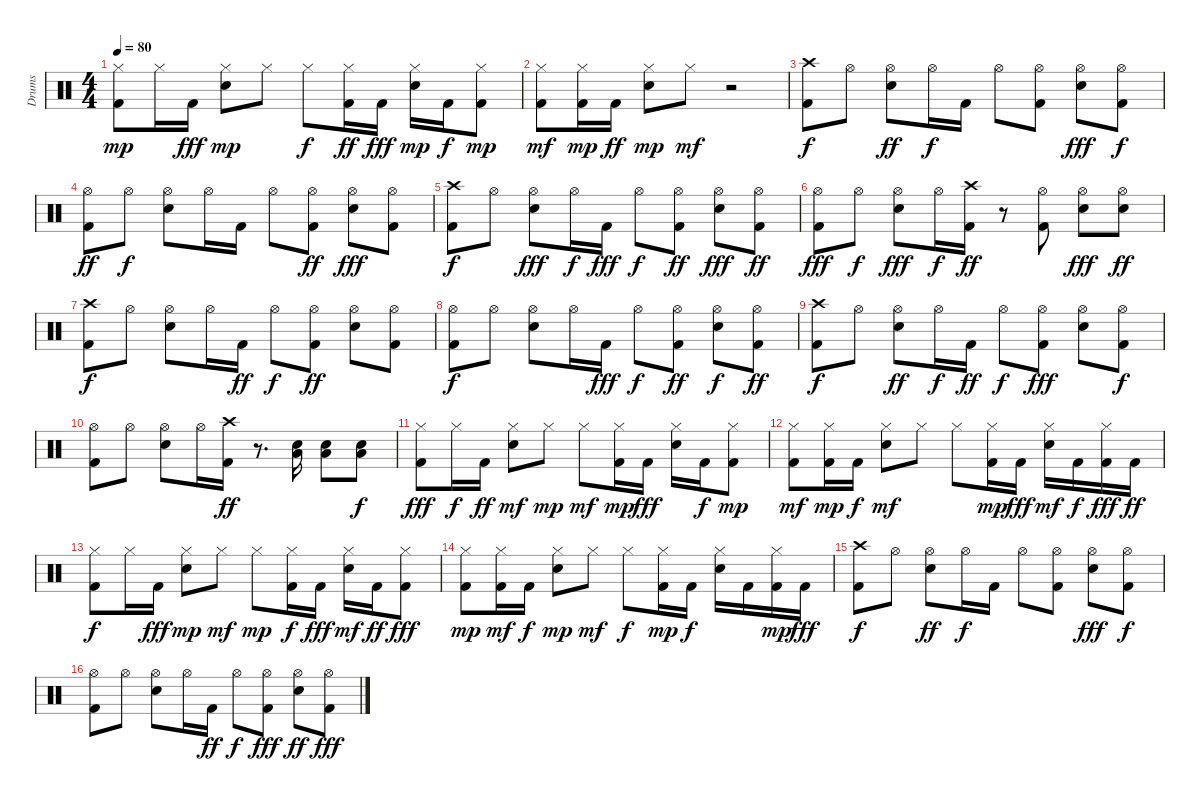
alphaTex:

\track ("Drums" "Drums") {instrument percussion}
\staff {score}
\articulation defaults
\ts (4 4)
\tempo 80
\clef neutral
\ks c
("Kick (hit) 2" "Hi-Hat (closed)").8{dy mp} "Hi-Hat (closed)".16 "Kick (hit) 2".16{dy fff} ("Snare (hit) 2" "Hi-Hat (closed)").8{dy mp} "Hi-Hat (closed)".8 "Hi-Hat (closed)".8{dy f} ("Kick (hit) 2" "Hi-Hat (closed)").16{dy ff} "Kick (hit) 2".16{dy fff} ("Snare (hit) 2" "Hi-Hat (closed)").16{dy mp} "Kick (hit) 2".16{dy f} ("Kick (hit) 2" "Hi-Hat (closed)").8{dy mp} |
("Kick (hit) 2" "Hi-Hat (closed)").8{dy mf} ("Kick (hit) 2" "Hi-Hat (closed)").16{dy mp} "Kick (hit) 2".16{dy ff} ("Snare (hit) 2" "Hi-Hat (closed)").8{dy mp} "Hi-Hat (closed)".8{dy mf} r.2 |
("Kick (hit) 2" "Crash high (hit)").8{dy f} "Hi-Hat (open)".8 ("Snare (hit) 2" "Hi-Hat (open)").8{dy ff} "Hi-Hat (open)".16{dy f} "Kick (hit) 2".16 "Hi-Hat (open)".8 ("Kick (hit) 2" "Hi-Hat (open)").8 ("Snare (hit) 2" "Hi-Hat (open)").8{dy fff} ("Kick (hit) 2" "Hi-Hat (open)").8{dy f} |
("Kick (hit) 2" "Hi-Hat (open)").8{dy ff} "Hi-Hat (open)".8{dy f} ("Snare (hit) 2" "Hi-Hat (open)").8 "Hi-Hat (open)".16 "Kick (hit) 2".16 "Hi-Hat (open)".8 ("Kick (hit) 2" "Hi-Hat (open)").8{dy ff} ("Snare (hit) 2" "Hi-Hat (open)").8{dy fff} ("Kick (hit) 2" "Hi-Hat (open)").8 |
("Kick (hit) 2" "Crash high (hit)").8{dy f} "Hi-Hat (open)".8 ("Snare (hit) 2" "Hi-Hat (open)").8{dy fff} "Hi-Hat (open)".16{dy f} "Kick (hit) 2".16{dy fff} "Hi-Hat (open)".8{dy f} ("Kick (hit) 2" "Hi-Hat (open)").8{dy ff} ("Snare (hit) 2" "Hi-Hat (open)").8{dy fff} ("Kick (hit) 2" "Hi-Hat (open)").8{dy ff} |
("Kick (hit) 2" "Hi-Hat (open)").8{dy fff} "Hi-Hat (open)".8{dy f} ("Snare (hit) 2" "Hi-Hat (open)").8{dy fff} "Hi-Hat (open)".16{dy f} ("Kick (hit) 2" "Crash high (hit)").16{dy ff} r.8 ("Kick (hit) 2" "Hi-Hat (open)").8 ("Snare (hit) 2" "Hi-Hat (open)").8{dy fff} ("Snare (hit) 2" "Hi-Hat (open)").8{dy ff} |
("Kick (hit) 2" "Crash high (hit)").8{dy f} "Hi-Hat (open)".8 ("Snare (hit) 2" "Hi-Hat (open)").8 "Hi-Hat (open)".16 "Kick (hit) 2".16{dy ff} "Hi-Hat (open)".8{dy f} ("Kick (hit) 2" "Hi-Hat (open)").8{dy ff} ("Snare (hit) 2" "Hi-Hat (open)").8 ("Kick (hit) 2" "Hi-Hat (open)").8 |
("Kick (hit) 2" "Hi-Hat (open)").8{dy f} "Hi-Hat (open)".8 ("Snare (hit) 2" "Hi-Hat (open)").8 "Hi-Hat (open)".16 "Kick (hit) 2".16{dy fff} "Hi-Hat (open)".8{dy f} ("Kick (hit) 2" "Hi-Hat (open)").8{dy ff} ("Snare (hit) 2" "Hi-Hat (open)").8{dy f} ("Kick (hit) 2" "Hi-Hat (open)").8{dy ff} |
("Kick (hit) 2" "Crash high (hit)").8{dy f} "Hi-Hat (open)".8 ("Snare (hit) 2" "Hi-Hat (open)").8{dy ff} "Hi-Hat (open)".16{dy f} "Kick (hit) 2".16{dy ff} "Hi-Hat (open)".8{dy f} ("Kick (hit) 2" "Hi-Hat (open)").8{dy fff} ("Snare (hit) 2" "Hi-Hat (open)").8 ("Kick (hit) 2" "Hi-Hat (open)").8{dy f} |
("Kick (hit) 2" "Hi-Hat (open)").8 "Hi-Hat (open)".8 ("Snare (hit) 2" "Hi-Hat (open)").8 "Hi-Hat (open)".16 ("Kick (hit) 2" "Crash high (hit)").16{dy ff} r.8{d} ("Snare (hit) 2" "Low Floor Tom (hit)").16 ("Snare (hit) 2" "Low Floor Tom (hit)").8 ("Snare (hit) 2" "Low Floor Tom (hit)").8{dy f} |
("Kick (hit) 2" "Hi-Hat (closed)").8{dy fff} "Hi-Hat (closed)".16{dy f} "Kick (hit) 2".16{dy ff} ("Snare (hit) 2" "Hi-Hat (closed)").8{dy mf} "Hi-Hat (closed)".8{dy mp} "Hi-Hat (closed)".8{dy mf} ("Kick (hit) 2" "Hi-Hat (closed)").16{dy mp} "Kick (hit) 2".16{dy fff} ("Snare (hit) 2" "Hi-Hat (closed)").16 "Kick (hit) 2".16{dy f} ("Kick (hit) 2" "Hi-Hat (closed)").8{dy mp} |
("Kick (hit) 2" "Hi-Hat (closed)").8{dy mf} ("Kick (hit) 2" "Hi-Hat (closed)").16{dy mp} "Kick (hit) 2".16{dy f} ("Snare (hit) 2" "Hi-Hat (closed)").8{dy mf} "Hi-Hat (closed)".8 "Hi-Hat (closed)".8 ("Kick (hit) 2" "Hi-Hat (closed)").16{dy mp} "Kick (hit) 2".16{dy fff} ("Snare (hit) 2" "Hi-Hat (closed)").16{dy mf} "Kick (hit) 2".16{dy f} ("Kick (hit) 2" "Hi-Hat (closed)").16{dy fff} "Kick (hit) 2".16{dy ff} |
("Kick (hit) 2" "Hi-Hat (closed)").8{dy f} "Hi-Hat (closed)".16 "Kick (hit) 2".16{dy fff} ("Snare (hit) 2" "Hi-Hat (closed)").8{dy mp} "Hi-Hat (closed)".8{dy mf} "Hi-Hat (closed)".8{dy mp} ("Kick (hit) 2" "Hi-Hat (closed)").16{dy f} "Kick (hit) 2".16{dy fff} ("Snare (hit) 2" "Hi-Hat (closed)").16{dy mf} "Kick (hit) 2".16{dy ff} ("Kick (hit) 2" "Hi-Hat (closed)").8{dy fff} |
("Kick (hit) 2" "Hi-Hat (closed)").8{dy mp} ("Kick (hit) 2" "Hi-Hat (closed)").16{dy mf} "Kick (hit) 2".16{dy f} ("Snare (hit) 2" "Hi-Hat (closed)").8{dy mp} "Hi-Hat (closed)".8{dy mf} "Hi-Hat (closed)".8{dy f} ("Kick (hit) 2" "Hi-Hat (closed)").16{dy mp} "Kick (hit) 2".16{dy f} ("Snare (hit) 2" "Hi-Hat (closed)").16 "Kick (hit) 2".16 ("Kick (hit) 2" "Hi-Hat (closed)").16{dy mp} "Kick (hit) 2".16{dy fff} |
("Kick (hit) 2" "Crash high (hit)").8{dy f} "Hi-Hat (open)".8 ("Snare (hit) 2" "Hi-Hat (open)").8{dy ff} "Hi-Hat (open)".16{dy f} "Kick (hit) 2".16 "Hi-Hat (open)".8 ("Kick (hit) 2" "Hi-Hat (open)").8 ("Snare (hit) 2" "Hi-Hat (open)").8{dy fff} ("Kick (hit) 2" "Hi-Hat (open)").8{dy f} |
("Kick (hit) 2" "Hi-Hat (open)").8 "Hi-Hat (open)".8 ("Snare (hit) 2" "Hi-Hat (open)").8 "Hi-Hat (open)".16 "Kick (hit) 2".16{dy ff} "Hi-Hat (open)".8{dy f} ("Kick (hit) 2" "Hi-Hat (open)").8{dy fff} ("Snare (hit) 2" "Hi-Hat (open)").8{dy ff} ("Kick (hit) 2" "Hi-Hat (open)").8{dy fff}
